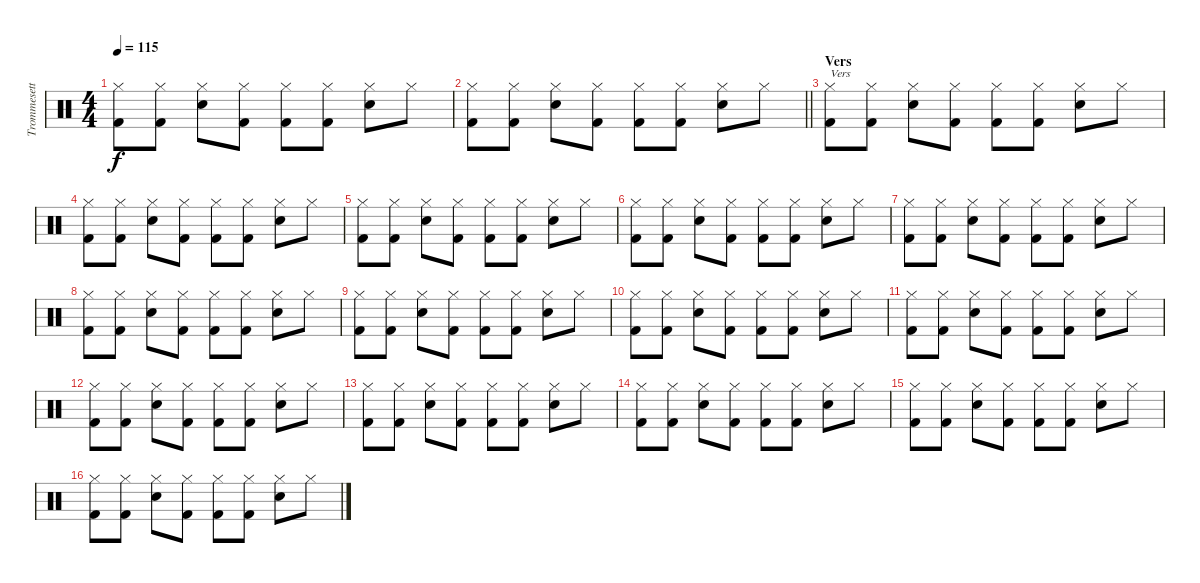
\track ("Trommesett" "Trommesett") {instrument percussion}
\staff {score}
\articulation defaults
\ts (4 4)
\tempo 115
\clef neutral
\ks c
("Hi-Hat (closed)" "Kick (hit) 2").8{dy f} ("Hi-Hat (closed)" "Kick (hit) 2").8 ("Hi-Hat (closed)" "Electric Snare (hit)").8 ("Hi-Hat (closed)" "Kick (hit) 2").8 ("Hi-Hat (closed)" "Kick (hit) 2").8 ("Hi-Hat (closed)" "Kick (hit) 2").8 ("Hi-Hat (closed)" "Electric Snare (hit)").8 "Hi-Hat (closed)".8 |
\barLineRight lightlight
("Hi-Hat (closed)" "Kick (hit) 2").8 ("Hi-Hat (closed)" "Kick (hit) 2").8 ("Hi-Hat (closed)" "Electric Snare (hit)").8 ("Hi-Hat (closed)" "Kick (hit) 2").8 ("Hi-Hat (closed)" "Kick (hit) 2").8 ("Hi-Hat (closed)" "Kick (hit) 2").8 ("Hi-Hat (closed)" "Electric Snare (hit)").8 "Hi-Hat (closed)".8 |
\section ("" "Vers")
("Hi-Hat (closed)" "Kick (hit) 2").8{txt "Vers"} ("Hi-Hat (closed)" "Kick (hit) 2").8 ("Hi-Hat (closed)" "Electric Snare (hit)").8 ("Hi-Hat (closed)" "Kick (hit) 2").8 ("Hi-Hat (closed)" "Kick (hit) 2").8 ("Hi-Hat (closed)" "Kick (hit) 2").8 ("Hi-Hat (closed)" "Electric Snare (hit)").8 "Hi-Hat (closed)".8 |
("Hi-Hat (closed)" "Kick (hit) 2").8 ("Hi-Hat (closed)" "Kick (hit) 2").8 ("Hi-Hat (closed)" "Electric Snare (hit)").8 ("Hi-Hat (closed)" "Kick (hit) 2").8 ("Hi-Hat (closed)" "Kick (hit) 2").8 ("Hi-Hat (closed)" "Kick (hit) 2").8 ("Hi-Hat (closed)" "Electric Snare (hit)").8 "Hi-Hat (closed)".8 |
("Hi-Hat (closed)" "Kick (hit) 2").8 ("Hi-Hat (closed)" "Kick (hit) 2").8 ("Hi-Hat (closed)" "Electric Snare (hit)").8 ("Hi-Hat (closed)" "Kick (hit) 2").8 ("Hi-Hat (closed)" "Kick (hit) 2").8 ("Hi-Hat (closed)" "Kick (hit) 2").8 ("Hi-Hat (closed)" "Electric Snare (hit)").8 "Hi-Hat (closed)".8 |
("Hi-Hat (closed)" "Kick (hit) 2").8 ("Hi-Hat (closed)" "Kick (hit) 2").8 ("Hi-Hat (closed)" "Electric Snare (hit)").8 ("Hi-Hat (closed)" "Kick (hit) 2").8 ("Hi-Hat (closed)" "Kick (hit) 2").8 ("Hi-Hat (closed)" "Kick (hit) 2").8 ("Hi-Hat (closed)" "Electric Snare (hit)").8 "Hi-Hat (closed)".8 |
("Hi-Hat (closed)" "Kick (hit) 2").8 ("Hi-Hat (closed)" "Kick (hit) 2").8 ("Hi-Hat (closed)" "Electric Snare (hit)").8 ("Hi-Hat (closed)" "Kick (hit) 2").8 ("Hi-Hat (closed)" "Kick (hit) 2").8 ("Hi-Hat (closed)" "Kick (hit) 2").8 ("Hi-Hat (closed)" "Electric Snare (hit)").8 "Hi-Hat (closed)".8 |
("Hi-Hat (closed)" "Kick (hit) 2").8 ("Hi-Hat (closed)" "Kick (hit) 2").8 ("Hi-Hat (closed)" "Electric Snare (hit)").8 ("Hi-Hat (closed)" "Kick (hit) 2").8 ("Hi-Hat (closed)" "Kick (hit) 2").8 ("Hi-Hat (closed)" "Kick (hit) 2").8 ("Hi-Hat (closed)" "Electric Snare (hit)").8 "Hi-Hat (closed)".8 |
("Hi-Hat (closed)" "Kick (hit) 2").8 ("Hi-Hat (closed)" "Kick (hit) 2").8 ("Hi-Hat (closed)" "Electric Snare (hit)").8 ("Hi-Hat (closed)" "Kick (hit) 2").8 ("Hi-Hat (closed)" "Kick (hit) 2").8 ("Hi-Hat (closed)" "Kick (hit) 2").8 ("Hi-Hat (closed)" "Electric Snare (hit)").8 "Hi-Hat (closed)".8 |
("Hi-Hat (closed)" "Kick (hit) 2").8 ("Hi-Hat (closed)" "Kick (hit) 2").8 ("Hi-Hat (closed)" "Electric Snare (hit)").8 ("Hi-Hat (closed)" "Kick (hit) 2").8 ("Hi-Hat (closed)" "Kick (hit) 2").8 ("Hi-Hat (closed)" "Kick (hit) 2").8 ("Hi-Hat (closed)" "Electric Snare (hit)").8 "Hi-Hat (closed)".8 |
("Hi-Hat (closed)" "Kick (hit) 2").8 ("Hi-Hat (closed)" "Kick (hit) 2").8 ("Hi-Hat (closed)" "Electric Snare (hit)").8 ("Hi-Hat (closed)" "Kick (hit) 2").8 ("Hi-Hat (closed)" "Kick (hit) 2").8 ("Hi-Hat (closed)" "Kick (hit) 2").8 ("Hi-Hat (closed)" "Electric Snare (hit)").8 "Hi-Hat (closed)".8 |
("Hi-Hat (closed)" "Kick (hit) 2").8 ("Hi-Hat (closed)" "Kick (hit) 2").8 ("Hi-Hat (closed)" "Electric Snare (hit)").8 ("Hi-Hat (closed)" "Kick (hit) 2").8 ("Hi-Hat (closed)" "Kick (hit) 2").8 ("Hi-Hat (closed)" "Kick (hit) 2").8 ("Hi-Hat (closed)" "Electric Snare (hit)").8 "Hi-Hat (closed)".8 |
("Hi-Hat (closed)" "Kick (hit) 2").8 ("Hi-Hat (closed)" "Kick (hit) 2").8 ("Hi-Hat (closed)" "Electric Snare (hit)").8 ("Hi-Hat (closed)" "Kick (hit) 2").8 ("Hi-Hat (closed)" "Kick (hit) 2").8 ("Hi-Hat (closed)" "Kick (hit) 2").8 ("Hi-Hat (closed)" "Electric Snare (hit)").8 "Hi-Hat (closed)".8 |
("Hi-Hat (closed)" "Kick (hit) 2").8 ("Hi-Hat (closed)" "Kick (hit) 2").8 ("Hi-Hat (closed)" "Electric Snare (hit)").8 ("Hi-Hat (closed)" "Kick (hit) 2").8 ("Hi-Hat (closed)" "Kick (hit) 2").8 ("Hi-Hat (closed)" "Kick (hit) 2").8 ("Hi-Hat (closed)" "Electric Snare (hit)").8 "Hi-Hat (closed)".8 |
("Hi-Hat (closed)" "Kick (hit) 2").8 ("Hi-Hat (closed)" "Kick (hit) 2").8 ("Hi-Hat (closed)" "Electric Snare (hit)").8 ("Hi-Hat (closed)" "Kick (hit) 2").8 ("Hi-Hat (closed)" "Kick (hit) 2").8 ("Hi-Hat (closed)" "Kick (hit) 2").8 ("Hi-Hat (closed)" "Electric Snare (hit)").8 "Hi-Hat (closed)".8 |
("Hi-Hat (closed)" "Kick (hit) 2").8 ("Hi-Hat (closed)" "Kick (hit) 2").8 ("Hi-Hat (closed)" "Electric Snare (hit)").8 ("Hi-Hat (closed)" "Kick (hit) 2").8 ("Hi-Hat (closed)" "Kick (hit) 2").8 ("Hi-Hat (closed)" "Kick (hit) 2").8 ("Hi-Hat (closed)" "Electric Snare (hit)").8 "Hi-Hat (closed)".8
